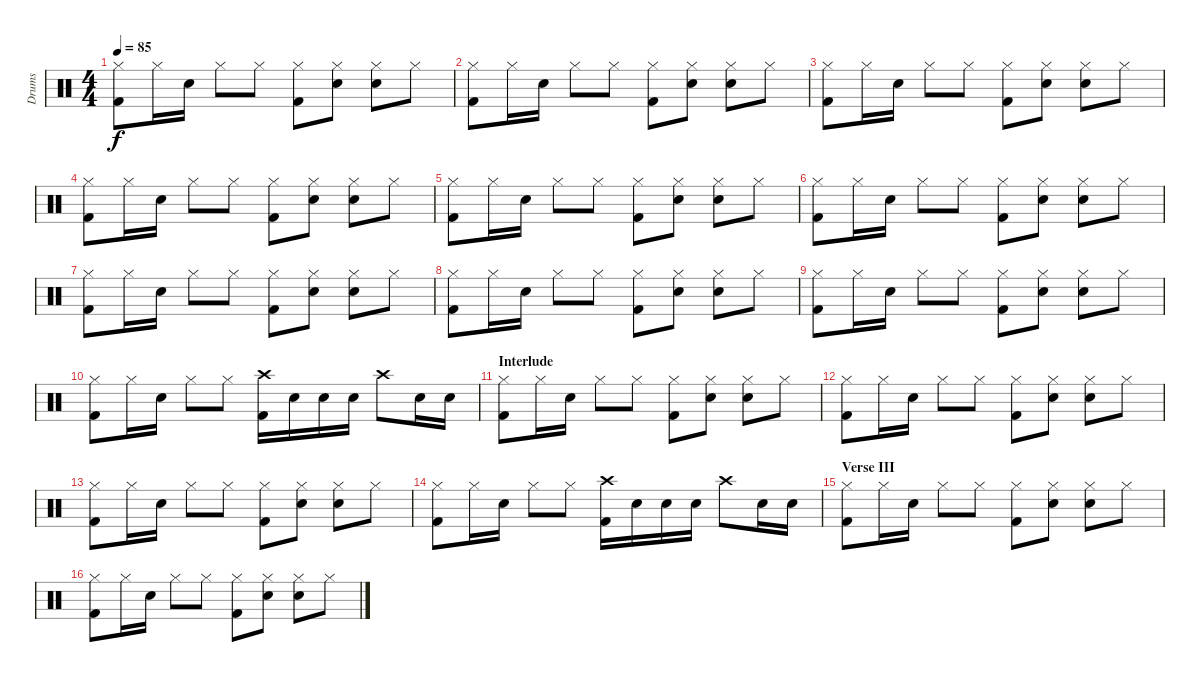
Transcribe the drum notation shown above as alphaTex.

\track ("Drums" "Drums") {instrument percussion}
\staff {score}
\articulation defaults
\ts (4 4)
\tempo 85
\clef neutral
\ks c
("Hi-Hat (closed)" "Kick (hit) 2").8{dy f} "Hi-Hat (closed)".16 "Snare (hit) 2".16 "Hi-Hat (closed)".8 "Hi-Hat (closed)".8 ("Hi-Hat (closed)" "Kick (hit) 2").8 ("Hi-Hat (closed)" "Snare (hit) 2").8 ("Hi-Hat (closed)" "Snare (hit) 2").8 "Hi-Hat (closed)".8 |
("Hi-Hat (closed)" "Kick (hit) 2").8 "Hi-Hat (closed)".16 "Snare (hit) 2".16 "Hi-Hat (closed)".8 "Hi-Hat (closed)".8 ("Hi-Hat (closed)" "Kick (hit) 2").8 ("Hi-Hat (closed)" "Snare (hit) 2").8 ("Hi-Hat (closed)" "Snare (hit) 2").8 "Hi-Hat (closed)".8 |
("Hi-Hat (closed)" "Kick (hit) 2").8 "Hi-Hat (closed)".16 "Snare (hit) 2".16 "Hi-Hat (closed)".8 "Hi-Hat (closed)".8 ("Hi-Hat (closed)" "Kick (hit) 2").8 ("Hi-Hat (closed)" "Snare (hit) 2").8 ("Hi-Hat (closed)" "Snare (hit) 2").8 "Hi-Hat (closed)".8 |
("Hi-Hat (closed)" "Kick (hit) 2").8 "Hi-Hat (closed)".16 "Snare (hit) 2".16 "Hi-Hat (closed)".8 "Hi-Hat (closed)".8 ("Hi-Hat (closed)" "Kick (hit) 2").8 ("Hi-Hat (closed)" "Snare (hit) 2").8 ("Hi-Hat (closed)" "Snare (hit) 2").8 "Hi-Hat (closed)".8 |
("Hi-Hat (closed)" "Kick (hit) 2").8 "Hi-Hat (closed)".16 "Snare (hit) 2".16 "Hi-Hat (closed)".8 "Hi-Hat (closed)".8 ("Hi-Hat (closed)" "Kick (hit) 2").8 ("Hi-Hat (closed)" "Snare (hit) 2").8 ("Hi-Hat (closed)" "Snare (hit) 2").8 "Hi-Hat (closed)".8 |
("Hi-Hat (closed)" "Kick (hit) 2").8 "Hi-Hat (closed)".16 "Snare (hit) 2".16 "Hi-Hat (closed)".8 "Hi-Hat (closed)".8 ("Hi-Hat (closed)" "Kick (hit) 2").8 ("Hi-Hat (closed)" "Snare (hit) 2").8 ("Hi-Hat (closed)" "Snare (hit) 2").8 "Hi-Hat (closed)".8 |
("Hi-Hat (closed)" "Kick (hit) 2").8 "Hi-Hat (closed)".16 "Snare (hit) 2".16 "Hi-Hat (closed)".8 "Hi-Hat (closed)".8 ("Hi-Hat (closed)" "Kick (hit) 2").8 ("Hi-Hat (closed)" "Snare (hit) 2").8 ("Hi-Hat (closed)" "Snare (hit) 2").8 "Hi-Hat (closed)".8 |
("Hi-Hat (closed)" "Kick (hit) 2").8 "Hi-Hat (closed)".16 "Snare (hit) 2".16 "Hi-Hat (closed)".8 "Hi-Hat (closed)".8 ("Hi-Hat (closed)" "Kick (hit) 2").8 ("Hi-Hat (closed)" "Snare (hit) 2").8 ("Hi-Hat (closed)" "Snare (hit) 2").8 "Hi-Hat (closed)".8 |
("Hi-Hat (closed)" "Kick (hit) 2").8 "Hi-Hat (closed)".16 "Snare (hit) 2".16 "Hi-Hat (closed)".8 "Hi-Hat (closed)".8 ("Hi-Hat (closed)" "Kick (hit) 2").8 ("Hi-Hat (closed)" "Snare (hit) 2").8 ("Hi-Hat (closed)" "Snare (hit) 2").8 "Hi-Hat (closed)".8 |
("Hi-Hat (closed)" "Kick (hit) 2").8 "Hi-Hat (closed)".16 "Snare (hit) 2".16 "Hi-Hat (closed)".8 "Hi-Hat (closed)".8 ("Crash high (hit)" "Kick (hit) 2").16 "Snare (hit) 2".16 "Snare (hit) 2".16 "Snare (hit) 2".16 "Crash high (hit)".8 "Snare (hit) 2".16 "Snare (hit) 2".16 |
\section ("" "Interlude")
("Hi-Hat (closed)" "Kick (hit) 2").8 "Hi-Hat (closed)".16 "Snare (hit) 2".16 "Hi-Hat (closed)".8 "Hi-Hat (closed)".8 ("Hi-Hat (closed)" "Kick (hit) 2").8 ("Hi-Hat (closed)" "Snare (hit) 2").8 ("Hi-Hat (closed)" "Snare (hit) 2").8 "Hi-Hat (closed)".8 |
("Hi-Hat (closed)" "Kick (hit) 2").8 "Hi-Hat (closed)".16 "Snare (hit) 2".16 "Hi-Hat (closed)".8 "Hi-Hat (closed)".8 ("Hi-Hat (closed)" "Kick (hit) 2").8 ("Hi-Hat (closed)" "Snare (hit) 2").8 ("Hi-Hat (closed)" "Snare (hit) 2").8 "Hi-Hat (closed)".8 |
("Hi-Hat (closed)" "Kick (hit) 2").8 "Hi-Hat (closed)".16 "Snare (hit) 2".16 "Hi-Hat (closed)".8 "Hi-Hat (closed)".8 ("Hi-Hat (closed)" "Kick (hit) 2").8 ("Hi-Hat (closed)" "Snare (hit) 2").8 ("Hi-Hat (closed)" "Snare (hit) 2").8 "Hi-Hat (closed)".8 |
("Hi-Hat (closed)" "Kick (hit) 2").8 "Hi-Hat (closed)".16 "Snare (hit) 2".16 "Hi-Hat (closed)".8 "Hi-Hat (closed)".8 ("Crash high (hit)" "Kick (hit) 2").16 "Snare (hit) 2".16 "Snare (hit) 2".16 "Snare (hit) 2".16 "Crash high (hit)".8 "Snare (hit) 2".16 "Snare (hit) 2".16 |
\section ("" "Verse III")
("Hi-Hat (closed)" "Kick (hit) 2").8 "Hi-Hat (closed)".16 "Snare (hit) 2".16 "Hi-Hat (closed)".8 "Hi-Hat (closed)".8 ("Hi-Hat (closed)" "Kick (hit) 2").8 ("Hi-Hat (closed)" "Snare (hit) 2").8 ("Hi-Hat (closed)" "Snare (hit) 2").8 "Hi-Hat (closed)".8 |
("Hi-Hat (closed)" "Kick (hit) 2").8 "Hi-Hat (closed)".16 "Snare (hit) 2".16 "Hi-Hat (closed)".8 "Hi-Hat (closed)".8 ("Hi-Hat (closed)" "Kick (hit) 2").8 ("Hi-Hat (closed)" "Snare (hit) 2").8 ("Hi-Hat (closed)" "Snare (hit) 2").8 "Hi-Hat (closed)".8
